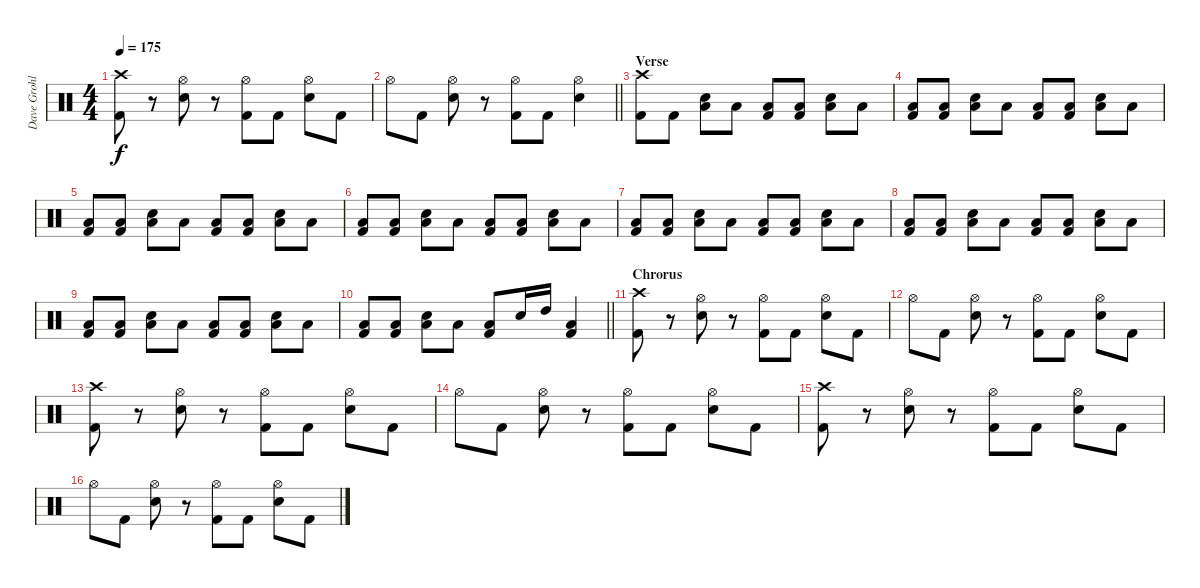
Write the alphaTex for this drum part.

\track ("Dave Grohl" "Dave Grohl") {solo instrument percussion}
\staff {score}
\articulation defaults
\ts (4 4)
\tempo 175
\clef neutral
\ks c
("Crash high (hit)" "Kick (hit) 2").8{dy f} r.8 ("Hi-Hat (open)" "Electric Snare (hit)").8 r.8 ("Hi-Hat (open)" "Kick (hit) 2").8 "Kick (hit) 2".8 ("Hi-Hat (open)" "Electric Snare (hit)").8 "Kick (hit) 2".8 |
\barLineRight lightlight "Hi-Hat (open)".8 "Kick (hit) 2".8
("Hi-Hat (open)" "Electric Snare (hit)").8 r.8 ("Hi-Hat (open)" "Kick (hit) 2").8 "Kick (hit) 2".8 ("Hi-Hat (open)" "Electric Snare (hit)").4 |
\section ("" "Verse")
("Crash high (hit)" "Kick (hit) 2").8 "Kick (hit) 2".8 ("Electric Snare (hit)" "Low Tom (hit)").8 "Low Tom (hit)".8 ("Low Tom (hit)" "Kick (hit) 2").8 ("Low Tom (hit)" "Kick (hit) 2").8 ("Electric Snare (hit)" "Low Tom (hit)").8 "Low Tom (hit)".8 |
("Low Tom (hit)" "Kick (hit) 2").8 ("Low Tom (hit)" "Kick (hit) 2").8 ("Electric Snare (hit)" "Low Tom (hit)").8 "Low Tom (hit)".8 ("Low Tom (hit)" "Kick (hit) 2").8 ("Low Tom (hit)" "Kick (hit) 2").8 ("Electric Snare (hit)" "Low Tom (hit)").8 "Low Tom (hit)".8 |
("Low Tom (hit)" "Kick (hit) 2").8 ("Low Tom (hit)" "Kick (hit) 2").8 ("Electric Snare (hit)" "Low Tom (hit)").8 "Low Tom (hit)".8 ("Low Tom (hit)" "Kick (hit) 2").8 ("Low Tom (hit)" "Kick (hit) 2").8 ("Electric Snare (hit)" "Low Tom (hit)").8 "Low Tom (hit)".8 |
("Low Tom (hit)" "Kick (hit) 2").8 ("Low Tom (hit)" "Kick (hit) 2").8 ("Electric Snare (hit)" "Low Tom (hit)").8 "Low Tom (hit)".8 ("Low Tom (hit)" "Kick (hit) 2").8 ("Low Tom (hit)" "Kick (hit) 2").8 ("Electric Snare (hit)" "Low Tom (hit)").8 "Low Tom (hit)".8 |
("Low Tom (hit)" "Kick (hit) 2").8 ("Low Tom (hit)" "Kick (hit) 2").8 ("Electric Snare (hit)" "Low Tom (hit)").8 "Low Tom (hit)".8 ("Low Tom (hit)" "Kick (hit) 2").8 ("Low Tom (hit)" "Kick (hit) 2").8 ("Electric Snare (hit)" "Low Tom (hit)").8 "Low Tom (hit)".8 |
("Low Tom (hit)" "Kick (hit) 2").8 ("Low Tom (hit)" "Kick (hit) 2").8 ("Electric Snare (hit)" "Low Tom (hit)").8 "Low Tom (hit)".8 ("Low Tom (hit)" "Kick (hit) 2").8 ("Low Tom (hit)" "Kick (hit) 2").8 ("Electric Snare (hit)" "Low Tom (hit)").8 "Low Tom (hit)".8 |
("Low Tom (hit)" "Kick (hit) 2").8 ("Low Tom (hit)" "Kick (hit) 2").8 ("Electric Snare (hit)" "Low Tom (hit)").8 "Low Tom (hit)".8 ("Low Tom (hit)" "Kick (hit) 2").8 ("Low Tom (hit)" "Kick (hit) 2").8 ("Electric Snare (hit)" "Low Tom (hit)").8 "Low Tom (hit)".8 |
\barLineRight lightlight
("Low Tom (hit)" "Kick (hit) 2").8 ("Low Tom (hit)" "Kick (hit) 2").8 ("Electric Snare (hit)" "Low Tom (hit)").8 "Low Tom (hit)".8 ("Low Tom (hit)" "Kick (hit) 2").8 "Electric Snare (hit)".16 "High Tom (hit)".16 ("Low Tom (hit)" "Kick (hit) 2").4 |
\section ("" "Chrorus")
("Crash high (hit)" "Kick (hit) 2").8 r.8 ("Hi-Hat (open)" "Electric Snare (hit)").8 r.8 ("Hi-Hat (open)" "Kick (hit) 2").8 "Kick (hit) 2".8 ("Hi-Hat (open)" "Electric Snare (hit)").8 "Kick (hit) 2".8 |
"Hi-Hat (open)".8 "Kick (hit) 2".8 ("Hi-Hat (open)" "Electric Snare (hit)").8 r.8 ("Hi-Hat (open)" "Kick (hit) 2").8 "Kick (hit) 2".8 ("Hi-Hat (open)" "Electric Snare (hit)").8 "Kick (hit) 2".8 |
("Crash high (hit)" "Kick (hit) 2").8 r.8 ("Hi-Hat (open)" "Electric Snare (hit)").8 r.8 ("Hi-Hat (open)" "Kick (hit) 2").8 "Kick (hit) 2".8 ("Hi-Hat (open)" "Electric Snare (hit)").8 "Kick (hit) 2".8 |
"Hi-Hat (open)".8 "Kick (hit) 2".8 ("Hi-Hat (open)" "Electric Snare (hit)").8 r.8 ("Hi-Hat (open)" "Kick (hit) 2").8 "Kick (hit) 2".8 ("Hi-Hat (open)" "Electric Snare (hit)").8 "Kick (hit) 2".8 |
("Crash high (hit)" "Kick (hit) 2").8 r.8 ("Hi-Hat (open)" "Electric Snare (hit)").8 r.8 ("Hi-Hat (open)" "Kick (hit) 2").8 "Kick (hit) 2".8 ("Hi-Hat (open)" "Electric Snare (hit)").8 "Kick (hit) 2".8 |
"Hi-Hat (open)".8 "Kick (hit) 2".8 ("Hi-Hat (open)" "Electric Snare (hit)").8 r.8 ("Hi-Hat (open)" "Kick (hit) 2").8 "Kick (hit) 2".8 ("Hi-Hat (open)" "Electric Snare (hit)").8 "Kick (hit) 2".8
